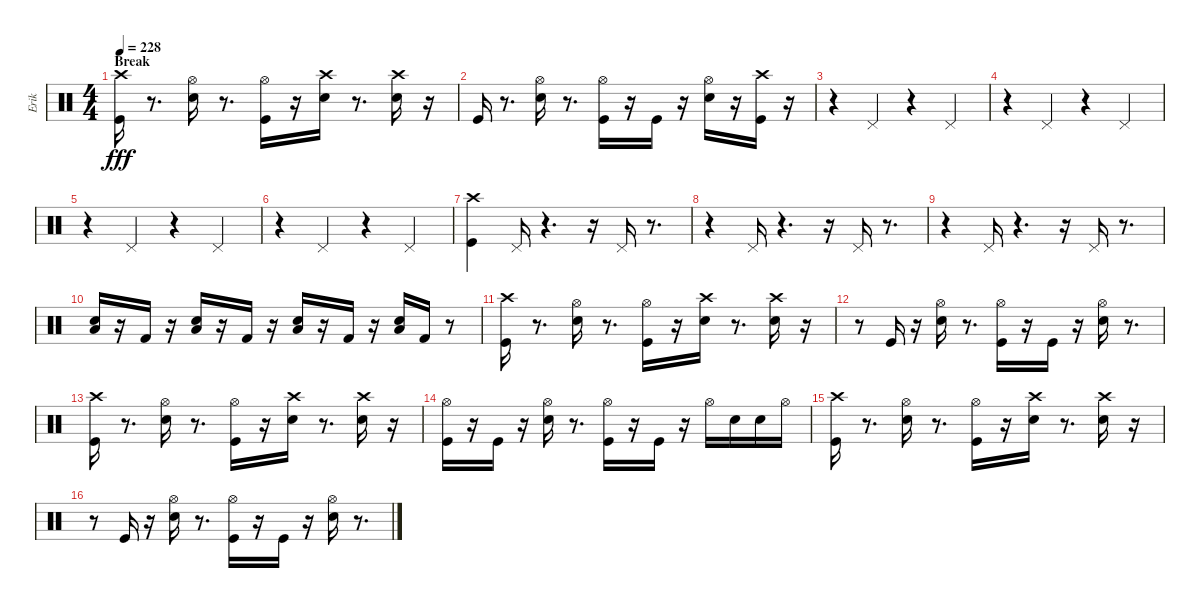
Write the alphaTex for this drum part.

\track ("Erik" "Erik") {instrument percussion}
\staff {score}
\articulation defaults
\ts (4 4)
\section ("" "Break")
\tempo 228
\clef neutral
\ks c
("Kick (hit)" "Crash high (hit)").16{dy fff} r.8{d} ("Electric Snare (hit)" "Hi-Hat (open)").16 r.8{d} ("Hi-Hat (open)" "Kick (hit)").16 r.16 ("Crash high (hit)" "Electric Snare (hit)").16 r.8{d} ("Crash high (hit)" "Electric Snare (hit)").16 r.16 |
"Kick (hit)".16 r.8{d} ("Electric Snare (hit)" "Hi-Hat (open)").16 r.8{d} ("Hi-Hat (open)" "Kick (hit)").16 r.16 "Kick (hit)".16 r.16 ("Hi-Hat (open)" "Electric Snare (hit)").16 r.16 ("Crash high (hit)" "Kick (hit)").16 r.16 |
r.4 "Pedal Hi-Hat (hit)".4 r.4 "Pedal Hi-Hat (hit)".4 |
r.4 "Pedal Hi-Hat (hit)".4 r.4 "Pedal Hi-Hat (hit)".4 |
r.4 "Pedal Hi-Hat (hit)".4 r.4 "Pedal Hi-Hat (hit)".4 |
r.4 "Pedal Hi-Hat (hit)".4 r.4 "Pedal Hi-Hat (hit)".4 |
("Kick (hit)" "Crash high (hit)").4 "Pedal Hi-Hat (hit)".16 r.4{d} r.16 "Pedal Hi-Hat (hit)".16 r.8{d} |
r.4 "Pedal Hi-Hat (hit)".16 r.4{d} r.16 "Pedal Hi-Hat (hit)".16 r.8{d} |
r.4 "Pedal Hi-Hat (hit)".16 r.4{d} r.16 "Pedal Hi-Hat (hit)".16 r.8{d} |
("Low Floor Tom (hit)" "Electric Snare (hit)").16 r.16 "Kick (hit) 2".16 r.16 ("Low Floor Tom (hit)" "Electric Snare (hit)").16 r.16 "Kick (hit) 2".16 r.16 ("Low Floor Tom (hit)" "Electric Snare (hit)").16 r.16 "Kick (hit) 2".16 r.16 ("Electric Snare (hit)" "Low Floor Tom (hit)").16 "Kick (hit) 2".16 r.8 |
("Kick (hit)" "Crash high (hit)").16 r.8{d} ("Electric Snare (hit)" "Hi-Hat (open)").16 r.8{d} ("Hi-Hat (open)" "Kick (hit)").16 r.16 ("Crash high (hit)" "Electric Snare (hit)").16 r.8{d} ("Crash high (hit)" "Electric Snare (hit)").16 r.16 |
r.8 "Kick (hit)".16 r.16 ("Hi-Hat (open)" "Electric Snare (hit)").16 r.8{d} ("Kick (hit)" "Hi-Hat (open)").16 r.16 "Kick (hit)".16 r.16 ("Electric Snare (hit)" "Hi-Hat (open)").16 r.8{d} |
("Crash high (hit)" "Kick (hit)").16 r.8{d} ("Electric Snare (hit)" "Hi-Hat (open)").16 r.8{d} ("Hi-Hat (open)" "Kick (hit)").16 r.16 ("Crash high (hit)" "Electric Snare (hit)").16 r.8{d} ("Crash high (hit)" "Electric Snare (hit)").16 r.16 |
("Kick (hit)" "Hi-Hat (open)").16 r.16 "Kick (hit)".16 r.16 ("Hi-Hat (open)" "Electric Snare (hit)").16 r.8{d} ("Kick (hit)" "Hi-Hat (open)").16 r.16 "Kick (hit)".16 r.16 "Hi-Hat (open)".16 "Electric Snare (hit)".16 "Electric Snare (hit)".16 "Hi-Hat (open)".16 |
("Crash high (hit)" "Kick (hit)").16 r.8{d} ("Electric Snare (hit)" "Hi-Hat (open)").16 r.8{d} ("Hi-Hat (open)" "Kick (hit)").16 r.16 ("Crash high (hit)" "Electric Snare (hit)").16 r.8{d} ("Crash high (hit)" "Electric Snare (hit)").16 r.16 |
r.8 "Kick (hit)".16 r.16 ("Electric Snare (hit)" "Hi-Hat (open)").16 r.8{d} ("Kick (hit)" "Hi-Hat (open)").16 r.16 "Kick (hit)".16 r.16 ("Electric Snare (hit)" "Hi-Hat (open)").16 r.8{d}
